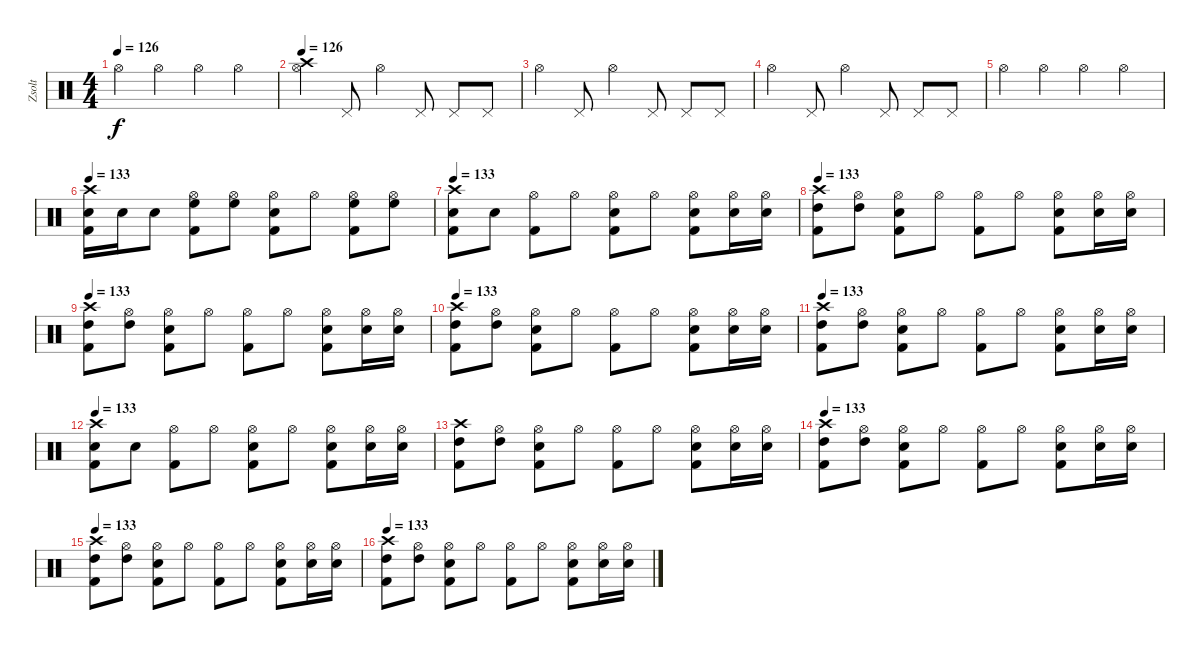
\track ("Zsolt" "Zsolt") {instrument percussion}
\staff {score}
\articulation defaults
\ts (4 4)
\tempo 126
\clef neutral
\ks c "Hi-Hat (open)".4{dy f} "Hi-Hat (open)".4 "Hi-Hat (open)".4 "Hi-Hat (open)".4
|
\tempo 126
("Hi-Hat (open)" "Crash high (hit)").4 "Pedal Hi-Hat (hit)".8 "Hi-Hat (open)".4 "Pedal Hi-Hat (hit)".8 "Pedal Hi-Hat (hit)".8 "Pedal Hi-Hat (hit)".8 |
"Hi-Hat (open)".4 "Pedal Hi-Hat (hit)".8 "Hi-Hat (open)".4 "Pedal Hi-Hat (hit)".8 "Pedal Hi-Hat (hit)".8 "Pedal Hi-Hat (hit)".8 |
"Hi-Hat (open)".4 "Pedal Hi-Hat (hit)".8 "Hi-Hat (open)".4 "Pedal Hi-Hat (hit)".8 "Pedal Hi-Hat (hit)".8 "Pedal Hi-Hat (hit)".8 |
"Hi-Hat (open)".4 "Hi-Hat (open)".4 "Hi-Hat (open)".4 "Hi-Hat (open)".4 |
\tempo 133
("Crash high (hit)" "Snare (hit) 2" "Kick (hit) 2").16 "Snare (hit) 2".16 "Snare (hit) 2".8 ("Hi-Hat (open)" "High Floor Tom (hit)" "Kick (hit) 2").8 ("Hi-Hat (open)" "High Floor Tom (hit)").8 ("Hi-Hat (open)" "Snare (hit) 2" "Kick (hit) 2").8 "Hi-Hat (open)".8 ("Hi-Hat (open)" "High Floor Tom (hit)" "Kick (hit) 2").8 ("Hi-Hat (open)" "High Floor Tom (hit)").8 |
\tempo 133
("Crash high (hit)" "Snare (hit) 2" "Kick (hit) 2").8 "Snare (hit) 2".8 ("Hi-Hat (open)" "Kick (hit) 2").8 "Hi-Hat (open)".8 ("Hi-Hat (open)" "Snare (hit) 2" "Kick (hit) 2").8 "Hi-Hat (open)".8 ("Hi-Hat (open)" "Snare (hit) 2" "Kick (hit) 2").8 ("Hi-Hat (open)" "Snare (hit) 2").16 ("Hi-Hat (open)" "Snare (hit) 2").16 |
\tempo 133
("Crash high (hit)" "High Tom (hit)" "Kick (hit) 2").8 ("Hi-Hat (open)" "High Tom (hit)").8 ("Hi-Hat (open)" "Snare (hit) 2" "Kick (hit) 2").8 "Hi-Hat (open)".8 ("Hi-Hat (open)" "Kick (hit) 2").8 "Hi-Hat (open)".8 ("Hi-Hat (open)" "Snare (hit) 2" "Kick (hit) 2").8 ("Hi-Hat (open)" "Snare (hit) 2").16 ("Hi-Hat (open)" "Snare (hit) 2").16 |
\tempo 133
("Crash high (hit)" "High Tom (hit)" "Kick (hit) 2").8 ("Hi-Hat (open)" "High Tom (hit)").8 ("Hi-Hat (open)" "Snare (hit) 2" "Kick (hit) 2").8 "Hi-Hat (open)".8 ("Hi-Hat (open)" "Kick (hit) 2").8 "Hi-Hat (open)".8 ("Hi-Hat (open)" "Snare (hit) 2" "Kick (hit) 2").8 ("Hi-Hat (open)" "Snare (hit) 2").16 ("Hi-Hat (open)" "Snare (hit) 2").16 |
\tempo 133
("Crash high (hit)" "High Tom (hit)" "Kick (hit) 2").8 ("Hi-Hat (open)" "High Tom (hit)").8 ("Hi-Hat (open)" "Snare (hit) 2" "Kick (hit) 2").8 "Hi-Hat (open)".8 ("Hi-Hat (open)" "Kick (hit) 2").8 "Hi-Hat (open)".8 ("Hi-Hat (open)" "Snare (hit) 2" "Kick (hit) 2").8 ("Hi-Hat (open)" "Snare (hit) 2").16 ("Hi-Hat (open)" "Snare (hit) 2").16 |
\tempo 133
("Crash high (hit)" "High Tom (hit)" "Kick (hit) 2").8 ("Hi-Hat (open)" "High Tom (hit)").8 ("Hi-Hat (open)" "Snare (hit) 2" "Kick (hit) 2").8 "Hi-Hat (open)".8 ("Hi-Hat (open)" "Kick (hit) 2").8 "Hi-Hat (open)".8 ("Hi-Hat (open)" "Snare (hit) 2" "Kick (hit) 2").8 ("Hi-Hat (open)" "Snare (hit) 2").16 ("Hi-Hat (open)" "Snare (hit) 2").16 |
\tempo 133
("Crash high (hit)" "Snare (hit) 2" "Kick (hit) 2").8 "Snare (hit) 2".8 ("Hi-Hat (open)" "Kick (hit) 2").8 "Hi-Hat (open)".8 ("Hi-Hat (open)" "Snare (hit) 2" "Kick (hit) 2").8 "Hi-Hat (open)".8 ("Hi-Hat (open)" "Snare (hit) 2" "Kick (hit) 2").8 ("Hi-Hat (open)" "Snare (hit) 2").16 ("Hi-Hat (open)" "Snare (hit) 2").16 |
("Crash high (hit)" "High Tom (hit)" "Kick (hit) 2").8 ("Hi-Hat (open)" "High Tom (hit)").8 ("Hi-Hat (open)" "Snare (hit) 2" "Kick (hit) 2").8 "Hi-Hat (open)".8 ("Hi-Hat (open)" "Kick (hit) 2").8 "Hi-Hat (open)".8 ("Hi-Hat (open)" "Snare (hit) 2" "Kick (hit) 2").8 ("Hi-Hat (open)" "Snare (hit) 2").16 ("Hi-Hat (open)" "Snare (hit) 2").16 |
\tempo 133
("Crash high (hit)" "High Tom (hit)" "Kick (hit) 2").8 ("Hi-Hat (open)" "High Tom (hit)").8 ("Hi-Hat (open)" "Snare (hit) 2" "Kick (hit) 2").8 "Hi-Hat (open)".8 ("Hi-Hat (open)" "Kick (hit) 2").8 "Hi-Hat (open)".8 ("Hi-Hat (open)" "Snare (hit) 2" "Kick (hit) 2").8 ("Hi-Hat (open)" "Snare (hit) 2").16 ("Hi-Hat (open)" "Snare (hit) 2").16 |
\tempo 133
("Crash high (hit)" "High Tom (hit)" "Kick (hit) 2").8 ("Hi-Hat (open)" "High Tom (hit)").8 ("Hi-Hat (open)" "Snare (hit) 2" "Kick (hit) 2").8 "Hi-Hat (open)".8 ("Hi-Hat (open)" "Kick (hit) 2").8 "Hi-Hat (open)".8 ("Hi-Hat (open)" "Snare (hit) 2" "Kick (hit) 2").8 ("Hi-Hat (open)" "Snare (hit) 2").16 ("Hi-Hat (open)" "Snare (hit) 2").16 |
\tempo 133
("Crash high (hit)" "High Tom (hit)" "Kick (hit) 2").8 ("Hi-Hat (open)" "High Tom (hit)").8 ("Hi-Hat (open)" "Snare (hit) 2" "Kick (hit) 2").8 "Hi-Hat (open)".8 ("Hi-Hat (open)" "Kick (hit) 2").8 "Hi-Hat (open)".8 ("Hi-Hat (open)" "Snare (hit) 2" "Kick (hit) 2").8 ("Hi-Hat (open)" "Snare (hit) 2").16 ("Hi-Hat (open)" "Snare (hit) 2").16
